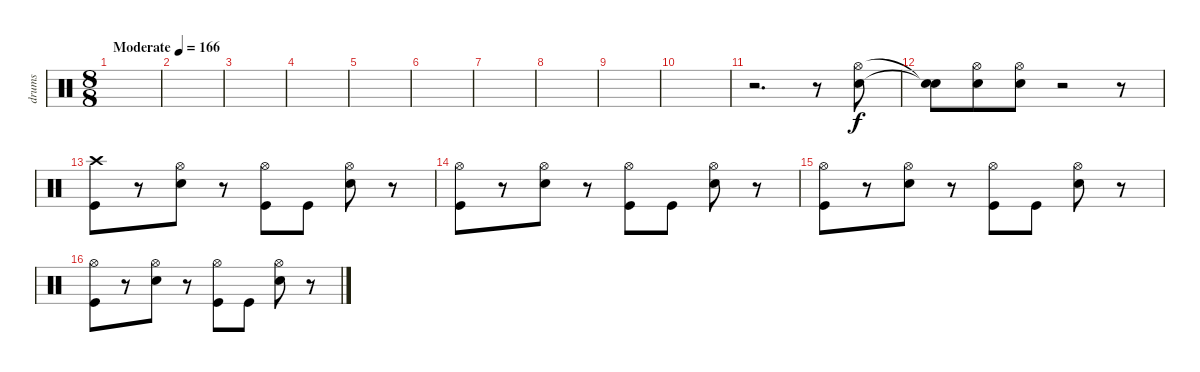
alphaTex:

\track ("drums" "drums") {instrument percussion}
\staff {score}
\articulation defaults
\ts (8 8)
\tempo (166 "Moderate")
\clef neutral
\ks c
|
|
|
|
|
|
|
|
|
|
r.2{d} r.8 ("Hi-Hat (open)" "Snare (hit) 2").8 |
("Snare (hit)"{t} "Snare (hit)"{t}).8 ("Hi-Hat (open)" "Snare (hit) 2").8 ("Hi-Hat (open)" "Snare (hit) 2").8 r.2 r.8 |
("Crash high (hit)" "Kick (hit)").8 r.8 ("Hi-Hat (open)" "Snare (hit) 2").8 r.8 ("Hi-Hat (open)" "Kick (hit)").8 "Kick (hit)".8 ("Hi-Hat (open)" "Snare (hit) 2").8 r.8 |
("Hi-Hat (open)" "Kick (hit)").8 r.8 ("Hi-Hat (open)" "Snare (hit) 2").8 r.8 ("Hi-Hat (open)" "Kick (hit)").8 "Kick (hit)".8 ("Hi-Hat (open)" "Snare (hit) 2").8 r.8 |
("Hi-Hat (open)" "Kick (hit)").8 r.8 ("Hi-Hat (open)" "Snare (hit) 2").8 r.8 ("Hi-Hat (open)" "Kick (hit)").8 "Kick (hit)".8 ("Hi-Hat (open)" "Snare (hit) 2").8 r.8 |
("Hi-Hat (open)" "Kick (hit)").8 r.8 ("Hi-Hat (open)" "Snare (hit) 2").8 r.8 ("Hi-Hat (open)" "Kick (hit)").8 "Kick (hit)".8 ("Hi-Hat (open)" "Snare (hit) 2").8 r.8
